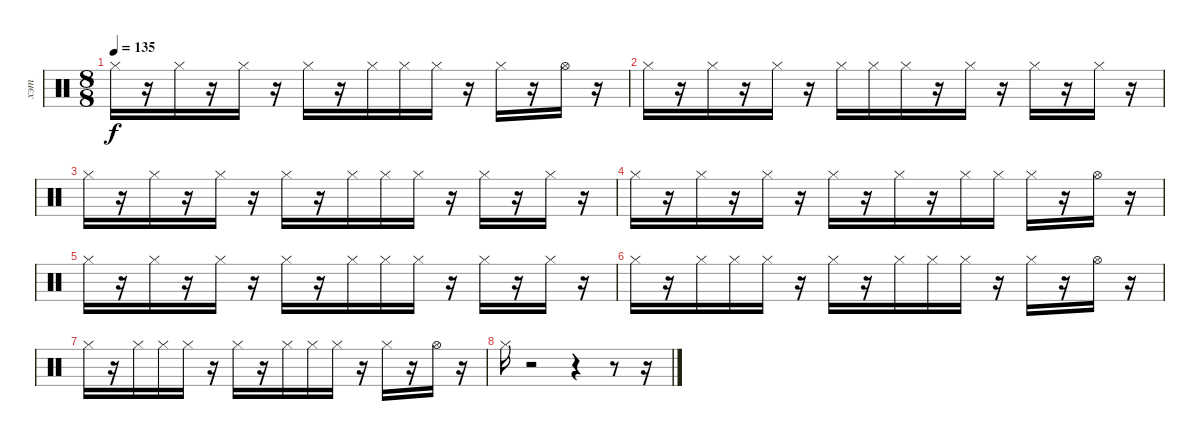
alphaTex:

\track ("хэт" "хэт") {instrument percussion}
\staff {score}
\articulation defaults
\ts (8 8)
\tempo 135
\clef neutral
\ks c "Hi-Hat (closed)".16{dy f}
r.16 "Hi-Hat (closed)".16 r.16 "Hi-Hat (closed)".16 r.16 "Hi-Hat (closed)".16 r.16 "Hi-Hat (closed)".16 "Hi-Hat (closed)".16 "Hi-Hat (closed)".16 r.16 "Hi-Hat (closed)".16 r.16 "Hi-Hat (open)".16 r.16 |
"Hi-Hat (closed)".16 r.16 "Hi-Hat (closed)".16 r.16 "Hi-Hat (closed)".16 r.16 "Hi-Hat (closed)".16 "Hi-Hat (closed)".16 "Hi-Hat (closed)".16 r.16 "Hi-Hat (closed)".16 r.16 "Hi-Hat (closed)".16 r.16 "Hi-Hat (closed)".16 r.16 |
"Hi-Hat (closed)".16 r.16 "Hi-Hat (closed)".16 r.16 "Hi-Hat (closed)".16 r.16 "Hi-Hat (closed)".16 r.16 "Hi-Hat (closed)".16 "Hi-Hat (closed)".16 "Hi-Hat (closed)".16 r.16 "Hi-Hat (closed)".16 r.16 "Hi-Hat (closed)".16 r.16 |
"Hi-Hat (closed)".16 r.16 "Hi-Hat (closed)".16 r.16 "Hi-Hat (closed)".16 r.16 "Hi-Hat (closed)".16 r.16 "Hi-Hat (closed)".16 r.16 "Hi-Hat (closed)".16 "Hi-Hat (closed)".16 "Hi-Hat (closed)".16 r.16 "Hi-Hat (open)".16 r.16 |
"Hi-Hat (closed)".16 r.16 "Hi-Hat (closed)".16 r.16 "Hi-Hat (closed)".16 r.16 "Hi-Hat (closed)".16 r.16 "Hi-Hat (closed)".16 "Hi-Hat (closed)".16 "Hi-Hat (closed)".16 r.16 "Hi-Hat (closed)".16 r.16 "Hi-Hat (closed)".16 r.16 |
"Hi-Hat (closed)".16 r.16 "Hi-Hat (closed)".16 "Hi-Hat (closed)".16 "Hi-Hat (closed)".16 r.16 "Hi-Hat (closed)".16 r.16 "Hi-Hat (closed)".16 "Hi-Hat (closed)".16 "Hi-Hat (closed)".16 r.16 "Hi-Hat (closed)".16 r.16 "Hi-Hat (open)".16 r.16 |
"Hi-Hat (closed)".16 r.16 "Hi-Hat (closed)".16 "Hi-Hat (closed)".16 "Hi-Hat (closed)".16 r.16 "Hi-Hat (closed)".16 r.16 "Hi-Hat (closed)".16 "Hi-Hat (closed)".16 "Hi-Hat (closed)".16 r.16 "Hi-Hat (closed)".16 r.16 "Hi-Hat (open)".16 r.16 |
"Hi-Hat (closed)".16 r.2 r.4 r.8 r.16
